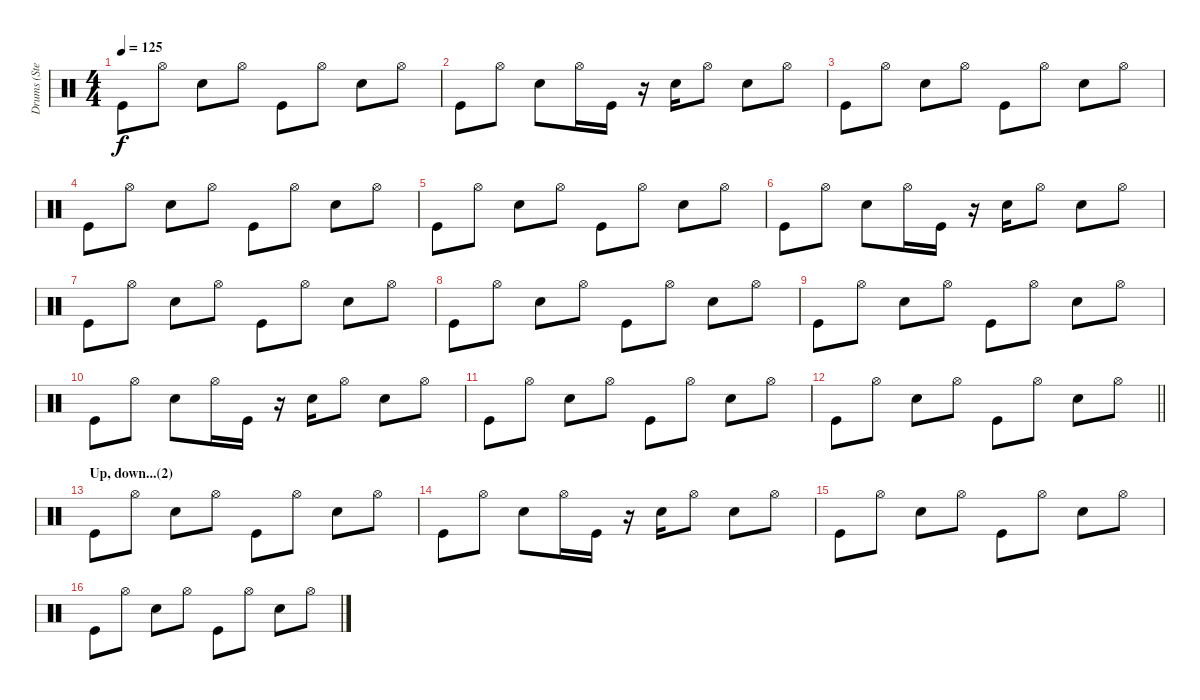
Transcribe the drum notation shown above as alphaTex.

\track ("Drums (Steve)" "Drums (Ste") {instrument percussion}
\staff {score}
\articulation defaults
\ts (4 4)
\tempo 125
\clef neutral
\ks c "Kick (hit)".8{dy f} "Hi-Hat (open)".8 "Electric Snare (hit)".8 "Hi-Hat (open)".8 "Kick (hit)".8 "Hi-Hat (open)".8 "Electric Snare (hit)".8 "Hi-Hat (open)".8
|
"Kick (hit)".8 "Hi-Hat (open)".8 "Electric Snare (hit)".8 "Hi-Hat (open)".16 "Kick (hit)".16 r.16 "Electric Snare (hit)".16 "Hi-Hat (open)".8 "Electric Snare (hit)".8 "Hi-Hat (open)".8 |
"Kick (hit)".8 "Hi-Hat (open)".8 "Electric Snare (hit)".8 "Hi-Hat (open)".8 "Kick (hit)".8 "Hi-Hat (open)".8 "Electric Snare (hit)".8 "Hi-Hat (open)".8 |
"Kick (hit)".8 "Hi-Hat (open)".8 "Electric Snare (hit)".8 "Hi-Hat (open)".8 "Kick (hit)".8 "Hi-Hat (open)".8 "Electric Snare (hit)".8 "Hi-Hat (open)".8 |
"Kick (hit)".8 "Hi-Hat (open)".8 "Electric Snare (hit)".8 "Hi-Hat (open)".8 "Kick (hit)".8 "Hi-Hat (open)".8 "Electric Snare (hit)".8 "Hi-Hat (open)".8 |
"Kick (hit)".8 "Hi-Hat (open)".8 "Electric Snare (hit)".8 "Hi-Hat (open)".16 "Kick (hit)".16 r.16 "Electric Snare (hit)".16 "Hi-Hat (open)".8 "Electric Snare (hit)".8 "Hi-Hat (open)".8 |
"Kick (hit)".8 "Hi-Hat (open)".8 "Electric Snare (hit)".8 "Hi-Hat (open)".8 "Kick (hit)".8 "Hi-Hat (open)".8 "Electric Snare (hit)".8 "Hi-Hat (open)".8 |
"Kick (hit)".8 "Hi-Hat (open)".8 "Electric Snare (hit)".8 "Hi-Hat (open)".8 "Kick (hit)".8 "Hi-Hat (open)".8 "Electric Snare (hit)".8 "Hi-Hat (open)".8 |
"Kick (hit)".8 "Hi-Hat (open)".8 "Electric Snare (hit)".8 "Hi-Hat (open)".8 "Kick (hit)".8 "Hi-Hat (open)".8 "Electric Snare (hit)".8 "Hi-Hat (open)".8 |
"Kick (hit)".8 "Hi-Hat (open)".8 "Electric Snare (hit)".8 "Hi-Hat (open)".16 "Kick (hit)".16 r.16 "Electric Snare (hit)".16 "Hi-Hat (open)".8 "Electric Snare (hit)".8 "Hi-Hat (open)".8 |
"Kick (hit)".8 "Hi-Hat (open)".8 "Electric Snare (hit)".8 "Hi-Hat (open)".8 "Kick (hit)".8 "Hi-Hat (open)".8 "Electric Snare (hit)".8 "Hi-Hat (open)".8 |
\barLineRight lightlight "Kick (hit)".8 "Hi-Hat (open)".8 "Electric Snare (hit)".8 "Hi-Hat (open)".8 "Kick (hit)".8 "Hi-Hat (open)".8 "Electric Snare (hit)".8 "Hi-Hat (open)".8
|
\section ("" "Up, down...(2)")
"Kick (hit)".8 "Hi-Hat (open)".8 "Electric Snare (hit)".8 "Hi-Hat (open)".8 "Kick (hit)".8 "Hi-Hat (open)".8 "Electric Snare (hit)".8 "Hi-Hat (open)".8 |
"Kick (hit)".8 "Hi-Hat (open)".8 "Electric Snare (hit)".8 "Hi-Hat (open)".16 "Kick (hit)".16 r.16 "Electric Snare (hit)".16 "Hi-Hat (open)".8 "Electric Snare (hit)".8 "Hi-Hat (open)".8 |
"Kick (hit)".8 "Hi-Hat (open)".8 "Electric Snare (hit)".8 "Hi-Hat (open)".8 "Kick (hit)".8 "Hi-Hat (open)".8 "Electric Snare (hit)".8 "Hi-Hat (open)".8 |
"Kick (hit)".8 "Hi-Hat (open)".8 "Electric Snare (hit)".8 "Hi-Hat (open)".8 "Kick (hit)".8 "Hi-Hat (open)".8 "Electric Snare (hit)".8 "Hi-Hat (open)".8
